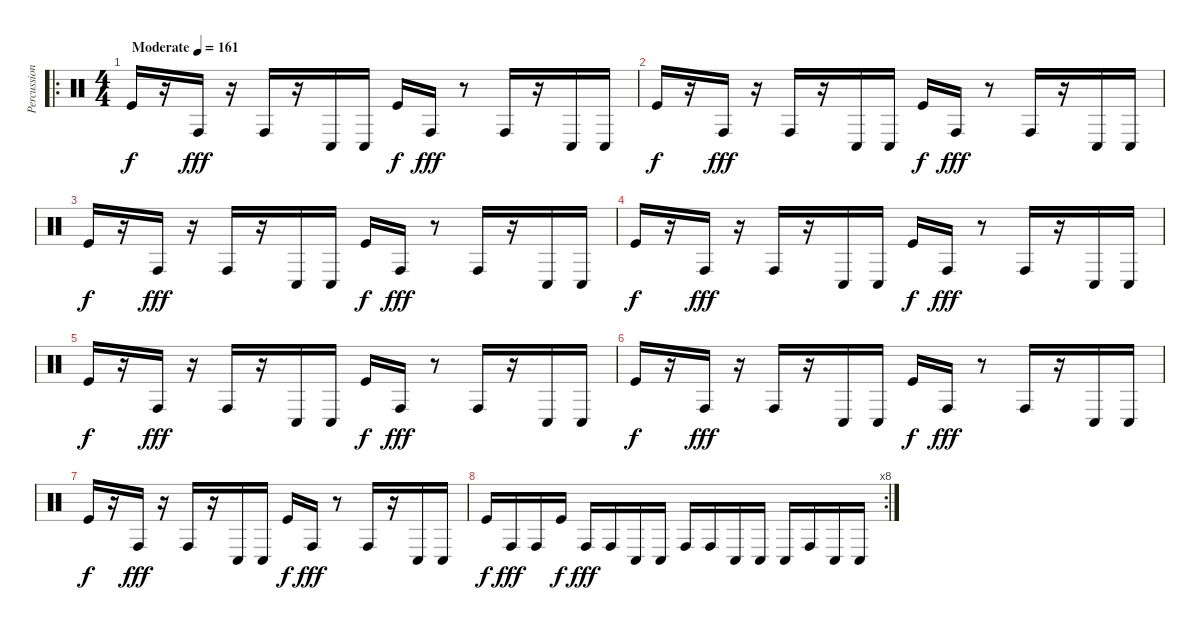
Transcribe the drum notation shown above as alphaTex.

\track ("Percussion" "Percussion") {instrument percussion}
\staff {score}
\articulation defaults
\ro
\ts (4 4)
\tempo (161 "Moderate")
\clef neutral
\ks c "Kick (hit)".16{dy f}
r.16 "Conga high (hit)".16{dy fff} r.16 "Conga high (hit)".16 r.16 "Conga low (hit)".16 "Conga low (hit)".16 "Kick (hit)".16{dy f} "Conga high (hit)".16{dy fff} r.8 "Conga high (hit)".16 r.16 "Conga low (hit)".16 "Conga low (hit)".16 |
"Kick (hit)".16{dy f} r.16 "Conga high (hit)".16{dy fff} r.16 "Conga high (hit)".16 r.16 "Conga low (hit)".16 "Conga low (hit)".16 "Kick (hit)".16{dy f} "Conga high (hit)".16{dy fff} r.8 "Conga high (hit)".16 r.16 "Conga low (hit)".16 "Conga low (hit)".16 |
"Kick (hit)".16{dy f} r.16 "Conga high (hit)".16{dy fff} r.16 "Conga high (hit)".16 r.16 "Conga low (hit)".16 "Conga low (hit)".16 "Kick (hit)".16{dy f} "Conga high (hit)".16{dy fff} r.8 "Conga high (hit)".16 r.16 "Conga low (hit)".16 "Conga low (hit)".16 |
"Kick (hit)".16{dy f} r.16 "Conga high (hit)".16{dy fff} r.16 "Conga high (hit)".16 r.16 "Conga low (hit)".16 "Conga low (hit)".16 "Kick (hit)".16{dy f} "Conga high (hit)".16{dy fff} r.8 "Conga high (hit)".16 r.16 "Conga low (hit)".16 "Conga low (hit)".16 |
"Kick (hit)".16{dy f} r.16 "Conga high (hit)".16{dy fff} r.16 "Conga high (hit)".16 r.16 "Conga low (hit)".16 "Conga low (hit)".16 "Kick (hit)".16{dy f} "Conga high (hit)".16{dy fff} r.8 "Conga high (hit)".16 r.16 "Conga low (hit)".16 "Conga low (hit)".16 |
"Kick (hit)".16{dy f} r.16 "Conga high (hit)".16{dy fff} r.16 "Conga high (hit)".16 r.16 "Conga low (hit)".16 "Conga low (hit)".16 "Kick (hit)".16{dy f} "Conga high (hit)".16{dy fff} r.8 "Conga high (hit)".16 r.16 "Conga low (hit)".16 "Conga low (hit)".16 |
"Kick (hit)".16{dy f} r.16 "Conga high (hit)".16{dy fff} r.16 "Conga high (hit)".16 r.16 "Conga low (hit)".16 "Conga low (hit)".16 "Kick (hit)".16{dy f} "Conga high (hit)".16{dy fff} r.8 "Conga high (hit)".16 r.16 "Conga low (hit)".16 "Conga low (hit)".16 |
\rc 8 "Kick (hit)".16{dy f} "Conga high (hit)".16{dy fff} "Conga high (hit)".16 "Kick (hit)".16{dy f} "Conga high (hit)".16{dy fff} "Conga high (hit)".16 "Conga low (hit)".16 "Conga low (hit)".16 "Conga high (hit)".16 "Conga high (hit)".16 "Conga low (hit)".16 "Conga low (hit)".16 "Conga low (hit)".16 "Conga high (hit)".16 "Conga low (hit)".16 "Conga low (hit)".16
